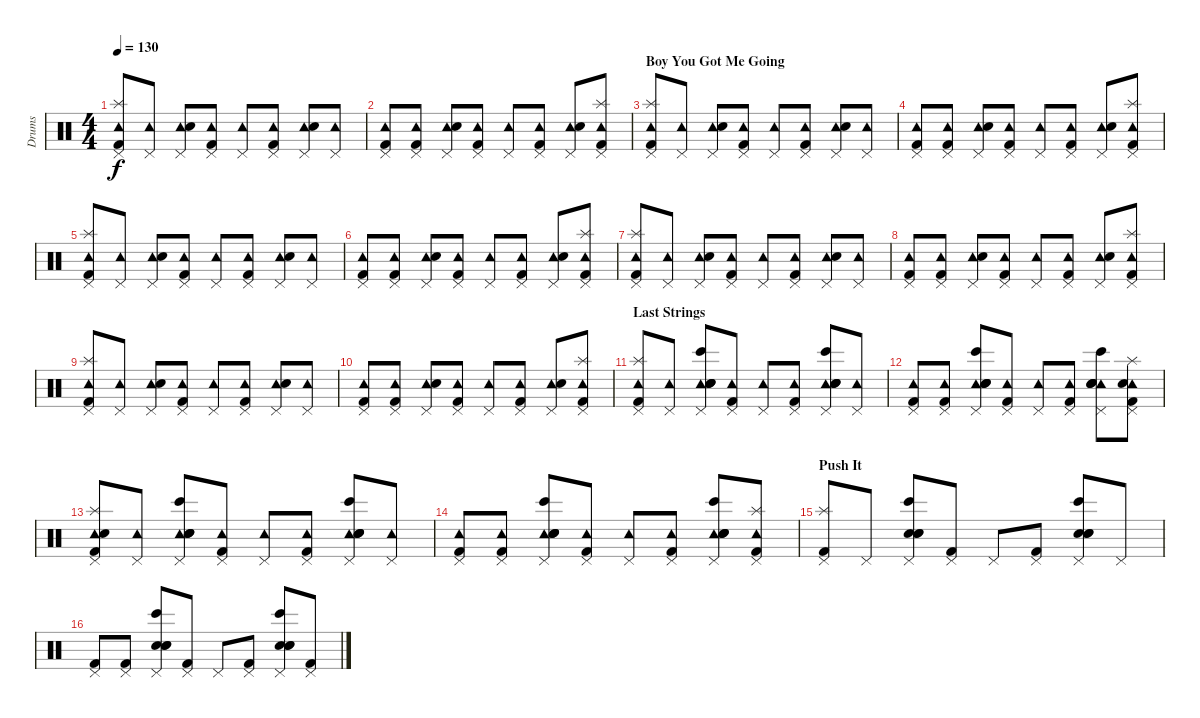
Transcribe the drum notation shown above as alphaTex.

\track ("Drums" "Drums") {instrument percussion}
\staff {score}
\articulation defaults
\ts (4 4)
\tempo 130
\clef neutral
\ks c
("Tambourine (hit)" "Pedal Hi-Hat (hit)" "Splash (hit)" "Kick (hit) 2").8{dy f} ("Tambourine (hit)" "Pedal Hi-Hat (hit)").8 ("Tambourine (hit)" "Pedal Hi-Hat (hit)" "Electric Snare (hit)").8 ("Tambourine (hit)" "Pedal Hi-Hat (hit)" "Kick (hit) 2").8 ("Tambourine (hit)" "Pedal Hi-Hat (hit)").8 ("Tambourine (hit)" "Pedal Hi-Hat (hit)" "Kick (hit) 2").8 ("Tambourine (hit)" "Pedal Hi-Hat (hit)" "Electric Snare (hit)").8 ("Tambourine (hit)" "Pedal Hi-Hat (hit)").8 |
("Tambourine (hit)" "Pedal Hi-Hat (hit)" "Kick (hit) 2").8 ("Tambourine (hit)" "Pedal Hi-Hat (hit)" "Kick (hit) 2").8 ("Tambourine (hit)" "Pedal Hi-Hat (hit)" "Electric Snare (hit)").8 ("Tambourine (hit)" "Pedal Hi-Hat (hit)" "Kick (hit) 2").8 ("Tambourine (hit)" "Pedal Hi-Hat (hit)").8 ("Tambourine (hit)" "Pedal Hi-Hat (hit)" "Kick (hit) 2").8 ("Tambourine (hit)" "Pedal Hi-Hat (hit)" "Electric Snare (hit)").8 ("Tambourine (hit)" "Pedal Hi-Hat (hit)" "Splash (hit)" "Kick (hit) 2").8 |
\section ("" "Boy You Got Me Going")
("Tambourine (hit)" "Pedal Hi-Hat (hit)" "Splash (hit)" "Kick (hit) 2").8 ("Tambourine (hit)" "Pedal Hi-Hat (hit)").8 ("Tambourine (hit)" "Pedal Hi-Hat (hit)" "Electric Snare (hit)").8 ("Tambourine (hit)" "Pedal Hi-Hat (hit)" "Kick (hit) 2").8 ("Tambourine (hit)" "Pedal Hi-Hat (hit)").8 ("Tambourine (hit)" "Pedal Hi-Hat (hit)" "Kick (hit) 2").8 ("Tambourine (hit)" "Pedal Hi-Hat (hit)" "Electric Snare (hit)").8 ("Tambourine (hit)" "Pedal Hi-Hat (hit)").8 |
("Tambourine (hit)" "Pedal Hi-Hat (hit)" "Kick (hit) 2").8 ("Tambourine (hit)" "Pedal Hi-Hat (hit)" "Kick (hit) 2").8 ("Tambourine (hit)" "Pedal Hi-Hat (hit)" "Electric Snare (hit)").8 ("Tambourine (hit)" "Pedal Hi-Hat (hit)" "Kick (hit) 2").8 ("Tambourine (hit)" "Pedal Hi-Hat (hit)").8 ("Tambourine (hit)" "Pedal Hi-Hat (hit)" "Kick (hit) 2").8 ("Tambourine (hit)" "Pedal Hi-Hat (hit)" "Electric Snare (hit)").8 ("Tambourine (hit)" "Pedal Hi-Hat (hit)" "Splash (hit)" "Kick (hit) 2").8 |
("Tambourine (hit)" "Pedal Hi-Hat (hit)" "Splash (hit)" "Kick (hit) 2").8 ("Tambourine (hit)" "Pedal Hi-Hat (hit)").8 ("Tambourine (hit)" "Pedal Hi-Hat (hit)" "Electric Snare (hit)").8 ("Tambourine (hit)" "Pedal Hi-Hat (hit)" "Kick (hit) 2").8 ("Tambourine (hit)" "Pedal Hi-Hat (hit)").8 ("Tambourine (hit)" "Pedal Hi-Hat (hit)" "Kick (hit) 2").8 ("Tambourine (hit)" "Pedal Hi-Hat (hit)" "Electric Snare (hit)").8 ("Tambourine (hit)" "Pedal Hi-Hat (hit)").8 |
("Tambourine (hit)" "Pedal Hi-Hat (hit)" "Kick (hit) 2").8 ("Tambourine (hit)" "Pedal Hi-Hat (hit)" "Kick (hit) 2").8 ("Tambourine (hit)" "Pedal Hi-Hat (hit)" "Electric Snare (hit)").8 ("Tambourine (hit)" "Pedal Hi-Hat (hit)" "Kick (hit) 2").8 ("Tambourine (hit)" "Pedal Hi-Hat (hit)").8 ("Tambourine (hit)" "Pedal Hi-Hat (hit)" "Kick (hit) 2").8 ("Tambourine (hit)" "Pedal Hi-Hat (hit)" "Electric Snare (hit)").8 ("Tambourine (hit)" "Pedal Hi-Hat (hit)" "Splash (hit)" "Kick (hit) 2").8 |
("Tambourine (hit)" "Pedal Hi-Hat (hit)" "Splash (hit)" "Kick (hit) 2").8 ("Tambourine (hit)" "Pedal Hi-Hat (hit)").8 ("Tambourine (hit)" "Pedal Hi-Hat (hit)" "Electric Snare (hit)").8 ("Tambourine (hit)" "Pedal Hi-Hat (hit)" "Kick (hit) 2").8 ("Tambourine (hit)" "Pedal Hi-Hat (hit)").8 ("Tambourine (hit)" "Pedal Hi-Hat (hit)" "Kick (hit) 2").8 ("Tambourine (hit)" "Pedal Hi-Hat (hit)" "Electric Snare (hit)").8 ("Tambourine (hit)" "Pedal Hi-Hat (hit)").8 |
("Tambourine (hit)" "Pedal Hi-Hat (hit)" "Kick (hit) 2").8 ("Tambourine (hit)" "Pedal Hi-Hat (hit)" "Kick (hit) 2").8 ("Tambourine (hit)" "Pedal Hi-Hat (hit)" "Electric Snare (hit)").8 ("Tambourine (hit)" "Pedal Hi-Hat (hit)" "Kick (hit) 2").8 ("Tambourine (hit)" "Pedal Hi-Hat (hit)").8 ("Tambourine (hit)" "Pedal Hi-Hat (hit)" "Kick (hit) 2").8 ("Tambourine (hit)" "Pedal Hi-Hat (hit)" "Electric Snare (hit)").8 ("Tambourine (hit)" "Pedal Hi-Hat (hit)" "Splash (hit)" "Kick (hit) 2").8 |
("Tambourine (hit)" "Pedal Hi-Hat (hit)" "Splash (hit)" "Kick (hit) 2").8 ("Tambourine (hit)" "Pedal Hi-Hat (hit)").8 ("Tambourine (hit)" "Pedal Hi-Hat (hit)" "Electric Snare (hit)").8 ("Tambourine (hit)" "Pedal Hi-Hat (hit)" "Kick (hit) 2").8 ("Tambourine (hit)" "Pedal Hi-Hat (hit)").8 ("Tambourine (hit)" "Pedal Hi-Hat (hit)" "Kick (hit) 2").8 ("Tambourine (hit)" "Pedal Hi-Hat (hit)" "Electric Snare (hit)").8 ("Tambourine (hit)" "Pedal Hi-Hat (hit)").8 |
("Tambourine (hit)" "Pedal Hi-Hat (hit)" "Kick (hit) 2").8 ("Tambourine (hit)" "Pedal Hi-Hat (hit)" "Kick (hit) 2").8 ("Tambourine (hit)" "Pedal Hi-Hat (hit)" "Electric Snare (hit)").8 ("Tambourine (hit)" "Pedal Hi-Hat (hit)" "Kick (hit) 2").8 ("Tambourine (hit)" "Pedal Hi-Hat (hit)").8 ("Tambourine (hit)" "Pedal Hi-Hat (hit)" "Kick (hit) 2").8 ("Tambourine (hit)" "Pedal Hi-Hat (hit)" "Electric Snare (hit)").8 ("Tambourine (hit)" "Pedal Hi-Hat (hit)" "Splash (hit)" "Kick (hit) 2").8 |
\section ("" "Last Strings")
("Tambourine (hit)" "Pedal Hi-Hat (hit)" "Splash (hit)" "Kick (hit) 2").8 ("Tambourine (hit)" "Pedal Hi-Hat (hit)").8 ("Tambourine (hit)" "Pedal Hi-Hat (hit)" "Snare (hit) 2" "Electric Snare (hit)" "Bongo High (hit)" "Hand Clap (hit)").8 ("Tambourine (hit)" "Pedal Hi-Hat (hit)" "Kick (hit) 2").8 ("Tambourine (hit)" "Pedal Hi-Hat (hit)").8 ("Tambourine (hit)" "Pedal Hi-Hat (hit)" "Kick (hit) 2").8 ("Tambourine (hit)" "Pedal Hi-Hat (hit)" "Snare (hit) 2" "Electric Snare (hit)" "Bongo High (hit)" "Hand Clap (hit)").8 ("Tambourine (hit)" "Pedal Hi-Hat (hit)").8 |
("Tambourine (hit)" "Pedal Hi-Hat (hit)" "Kick (hit) 2").8 ("Tambourine (hit)" "Pedal Hi-Hat (hit)" "Kick (hit) 2").8 ("Tambourine (hit)" "Pedal Hi-Hat (hit)" "Snare (hit) 2" "Electric Snare (hit)" "Bongo High (hit)" "Hand Clap (hit)").8 ("Tambourine (hit)" "Pedal Hi-Hat (hit)" "Kick (hit) 2").8 ("Tambourine (hit)" "Pedal Hi-Hat (hit)").8 ("Tambourine (hit)" "Pedal Hi-Hat (hit)" "Kick (hit) 2").8 ("Tambourine (hit)" "Pedal Hi-Hat (hit)" "Snare (hit) 2" "Electric Snare (hit)" "Bongo High (hit)" "Hand Clap (hit)").8 ("Tambourine (hit)" "Pedal Hi-Hat (hit)" "Splash (hit)" "Hand Clap (hit)" "Kick (hit) 2").8 |
("Tambourine (hit)" "Pedal Hi-Hat (hit)" "Splash (hit)" "Hand Clap (hit)" "Kick (hit) 2").8 ("Tambourine (hit)" "Pedal Hi-Hat (hit)").8 ("Tambourine (hit)" "Pedal Hi-Hat (hit)" "Snare (hit) 2" "Electric Snare (hit)" "Bongo High (hit)" "Hand Clap (hit)").8 ("Tambourine (hit)" "Pedal Hi-Hat (hit)" "Kick (hit) 2").8 ("Tambourine (hit)" "Pedal Hi-Hat (hit)").8 ("Tambourine (hit)" "Pedal Hi-Hat (hit)" "Kick (hit) 2").8 ("Tambourine (hit)" "Pedal Hi-Hat (hit)" "Snare (hit) 2" "Electric Snare (hit)" "Bongo High (hit)" "Hand Clap (hit)").8 ("Tambourine (hit)" "Pedal Hi-Hat (hit)").8 |
("Tambourine (hit)" "Pedal Hi-Hat (hit)" "Kick (hit) 2").8 ("Tambourine (hit)" "Pedal Hi-Hat (hit)" "Kick (hit) 2").8 ("Tambourine (hit)" "Pedal Hi-Hat (hit)" "Snare (hit) 2" "Electric Snare (hit)" "Bongo High (hit)" "Hand Clap (hit)").8 ("Tambourine (hit)" "Pedal Hi-Hat (hit)" "Kick (hit) 2").8 ("Tambourine (hit)" "Pedal Hi-Hat (hit)").8 ("Tambourine (hit)" "Pedal Hi-Hat (hit)" "Kick (hit) 2").8 ("Tambourine (hit)" "Pedal Hi-Hat (hit)" "Snare (hit) 2" "Electric Snare (hit)" "Bongo High (hit)" "Hand Clap (hit)").8 ("Tambourine (hit)" "Pedal Hi-Hat (hit)" "Splash (hit)" "Kick (hit) 2").8 |
\section ("" "Push It")
("Pedal Hi-Hat (hit)" "Splash (hit)" "Kick (hit) 2").8 "Pedal Hi-Hat (hit)".8 ("Pedal Hi-Hat (hit)" "Snare (hit) 2" "Electric Snare (hit)" "Bongo High (hit)" "Hand Clap (hit)").8 ("Pedal Hi-Hat (hit)" "Kick (hit) 2").8 "Pedal Hi-Hat (hit)".8 ("Pedal Hi-Hat (hit)" "Kick (hit) 2").8 ("Pedal Hi-Hat (hit)" "Snare (hit) 2" "Electric Snare (hit)" "Bongo High (hit)" "Hand Clap (hit)").8 "Pedal Hi-Hat (hit)".8 |
("Pedal Hi-Hat (hit)" "Kick (hit) 2").8 ("Pedal Hi-Hat (hit)" "Kick (hit) 2").8 ("Pedal Hi-Hat (hit)" "Snare (hit) 2" "Electric Snare (hit)" "Bongo High (hit)" "Hand Clap (hit)").8 ("Pedal Hi-Hat (hit)" "Kick (hit) 2").8 "Pedal Hi-Hat (hit)".8 ("Pedal Hi-Hat (hit)" "Kick (hit) 2").8 ("Pedal Hi-Hat (hit)" "Snare (hit) 2" "Electric Snare (hit)" "Bongo High (hit)" "Hand Clap (hit)").8 ("Pedal Hi-Hat (hit)" "Kick (hit) 2").8
